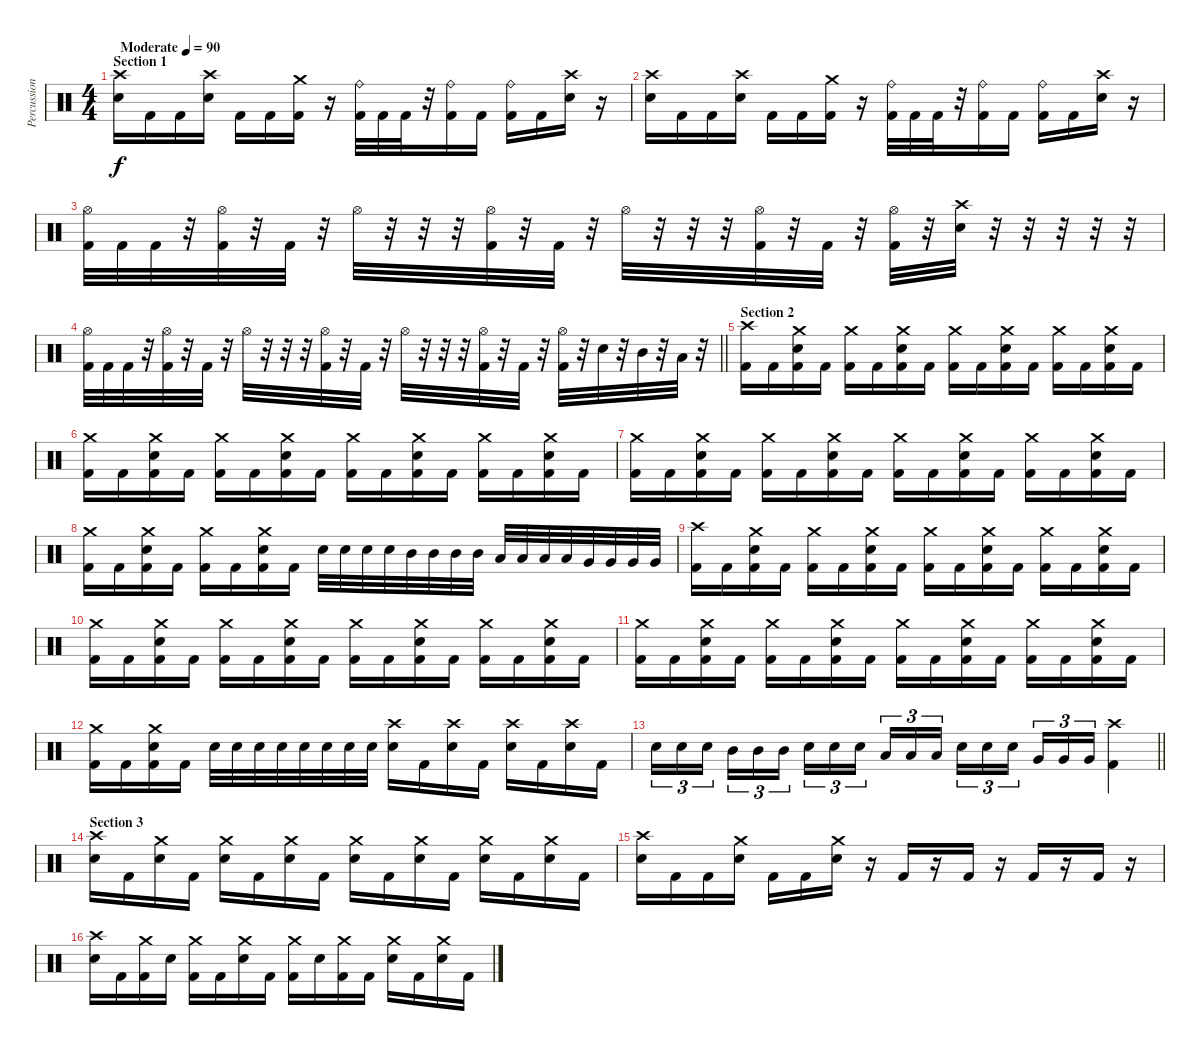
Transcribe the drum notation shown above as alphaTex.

\track ("Percussion" "Percussion") {instrument percussion}
\staff {score}
\articulation defaults
\ts (4 4)
\section ("" "Section 1")
\tempo (90 "Moderate")
\clef neutral
\ks c
("Crash high (hit)" "Electric Snare (hit)").16{dy f} "Kick (hit) 2".16 "Kick (hit) 2".16 ("Crash high (hit)" "Electric Snare (hit)").16 "Kick (hit) 2".16 "Kick (hit) 2".16 ("Crash medium (hit)" "Kick (hit) 2").16 r.16 ("Ride (bell)" "Kick (hit) 2").32 "Kick (hit) 2".32 "Kick (hit) 2".32 r.32 ("Ride (bell)" "Kick (hit) 2").16 "Kick (hit) 2".16 ("Ride (bell)" "Kick (hit) 2").16 "Kick (hit) 2".16 ("Crash high (hit)" "Electric Snare (hit)").16 r.16 |
("Crash high (hit)" "Electric Snare (hit)").16 "Kick (hit) 2".16 "Kick (hit) 2".16 ("Crash high (hit)" "Electric Snare (hit)").16 "Kick (hit) 2".16 "Kick (hit) 2".16 ("Crash medium (hit)" "Kick (hit) 2").16 r.16 ("Ride (bell)" "Kick (hit) 2").32 "Kick (hit) 2".32 "Kick (hit) 2".32 r.32 ("Ride (bell)" "Kick (hit) 2").16 "Kick (hit) 2".16 ("Ride (bell)" "Kick (hit) 2").16 "Kick (hit) 2".16 ("Crash high (hit)" "Electric Snare (hit)").16 r.16 |
("Hi-Hat (open)" "Kick (hit) 2").32 "Kick (hit) 2".32 "Kick (hit) 2".32 r.32 ("Hi-Hat (open)" "Kick (hit) 2").32 r.32 "Kick (hit) 2".32 r.32 "Hi-Hat (open)".32 r.32 r.32 r.32 ("Hi-Hat (open)" "Kick (hit) 2").32 r.32 "Kick (hit) 2".32 r.32 "Hi-Hat (open)".32 r.32 r.32 r.32 ("Hi-Hat (open)" "Kick (hit) 2").32 r.32 "Kick (hit) 2".32 r.32 ("Hi-Hat (open)" "Kick (hit) 2").32 r.32 ("Crash high (hit)" "Electric Snare (hit)").32 r.32 r.32 r.32 r.32 r.32 |
\barLineRight lightlight
("Hi-Hat (open)" "Kick (hit) 2").32 "Kick (hit) 2".32 "Kick (hit) 2".32 r.32 ("Hi-Hat (open)" "Kick (hit) 2").32 r.32 "Kick (hit) 2".32 r.32 "Hi-Hat (open)".32 r.32 r.32 r.32 ("Hi-Hat (open)" "Kick (hit) 2").32 r.32 "Kick (hit) 2".32 r.32 "Hi-Hat (open)".32 r.32 r.32 r.32 ("Hi-Hat (open)" "Kick (hit) 2").32 r.32 "Kick (hit) 2".32 r.32 ("Hi-Hat (open)" "Kick (hit) 2").32 r.32 "Electric Snare (hit)".32 r.32 "Mid Tom (hit)".32 r.32 "Low Tom (hit)".32 r.32 |
\section ("" "Section 2")
("Crash high (hit)" "Kick (hit) 2").16 "Kick (hit) 2".16 ("Crash medium (hit)" "Electric Snare (hit)" "Kick (hit) 2").16 "Kick (hit) 2".16 ("Crash medium (hit)" "Kick (hit) 2").16 "Kick (hit) 2".16 ("Crash medium (hit)" "Electric Snare (hit)" "Kick (hit) 2").16 "Kick (hit) 2".16 ("Crash medium (hit)" "Kick (hit) 2").16 "Kick (hit) 2".16 ("Crash medium (hit)" "Electric Snare (hit)" "Kick (hit) 2").16 "Kick (hit) 2".16 ("Crash medium (hit)" "Kick (hit) 2").16 "Kick (hit) 2".16 ("Crash medium (hit)" "Electric Snare (hit)" "Kick (hit) 2").16 "Kick (hit) 2".16 |
("Crash medium (hit)" "Kick (hit) 2").16 "Kick (hit) 2".16 ("Crash medium (hit)" "Electric Snare (hit)" "Kick (hit) 2").16 "Kick (hit) 2".16 ("Crash medium (hit)" "Kick (hit) 2").16 "Kick (hit) 2".16 ("Crash medium (hit)" "Electric Snare (hit)" "Kick (hit) 2").16 "Kick (hit) 2".16 ("Crash medium (hit)" "Kick (hit) 2").16 "Kick (hit) 2".16 ("Crash medium (hit)" "Electric Snare (hit)" "Kick (hit) 2").16 "Kick (hit) 2".16 ("Crash medium (hit)" "Kick (hit) 2").16 "Kick (hit) 2".16 ("Crash medium (hit)" "Electric Snare (hit)" "Kick (hit) 2").16 "Kick (hit) 2".16 |
("Crash medium (hit)" "Kick (hit) 2").16 "Kick (hit) 2".16 ("Crash medium (hit)" "Electric Snare (hit)" "Kick (hit) 2").16 "Kick (hit) 2".16 ("Crash medium (hit)" "Kick (hit) 2").16 "Kick (hit) 2".16 ("Crash medium (hit)" "Electric Snare (hit)" "Kick (hit) 2").16 "Kick (hit) 2".16 ("Crash medium (hit)" "Kick (hit) 2").16 "Kick (hit) 2".16 ("Crash medium (hit)" "Electric Snare (hit)" "Kick (hit) 2").16 "Kick (hit) 2".16 ("Crash medium (hit)" "Kick (hit) 2").16 "Kick (hit) 2".16 ("Crash medium (hit)" "Electric Snare (hit)" "Kick (hit) 2").16 "Kick (hit) 2".16 |
("Crash medium (hit)" "Kick (hit) 2").16 "Kick (hit) 2".16 ("Crash medium (hit)" "Electric Snare (hit)" "Kick (hit) 2").16 "Kick (hit) 2".16 ("Crash medium (hit)" "Kick (hit) 2").16 "Kick (hit) 2".16 ("Crash medium (hit)" "Electric Snare (hit)" "Kick (hit) 2").16 "Kick (hit) 2".16 "Electric Snare (hit)".32 "Electric Snare (hit)".32 "Electric Snare (hit)".32 "Electric Snare (hit)".32 "Mid Tom (hit)".32 "Mid Tom (hit)".32 "Mid Tom (hit)".32 "Mid Tom (hit)".32 "Low Tom (hit)".32 "Low Tom (hit)".32 "Low Tom (hit)".32 "Low Tom (hit)".32 "Very Low Tom (hit)".32 "Very Low Tom (hit)".32 "Very Low Tom (hit)".32 "Very Low Tom (hit)".32 |
("Crash high (hit)" "Kick (hit) 2").16 "Kick (hit) 2".16 ("Crash medium (hit)" "Electric Snare (hit)" "Kick (hit) 2").16 "Kick (hit) 2".16 ("Crash medium (hit)" "Kick (hit) 2").16 "Kick (hit) 2".16 ("Crash medium (hit)" "Electric Snare (hit)" "Kick (hit) 2").16 "Kick (hit) 2".16 ("Crash medium (hit)" "Kick (hit) 2").16 "Kick (hit) 2".16 ("Crash medium (hit)" "Electric Snare (hit)" "Kick (hit) 2").16 "Kick (hit) 2".16 ("Crash medium (hit)" "Kick (hit) 2").16 "Kick (hit) 2".16 ("Crash medium (hit)" "Electric Snare (hit)" "Kick (hit) 2").16 "Kick (hit) 2".16 |
("Crash medium (hit)" "Kick (hit) 2").16 "Kick (hit) 2".16 ("Crash medium (hit)" "Electric Snare (hit)" "Kick (hit) 2").16 "Kick (hit) 2".16 ("Crash medium (hit)" "Kick (hit) 2").16 "Kick (hit) 2".16 ("Crash medium (hit)" "Electric Snare (hit)" "Kick (hit) 2").16 "Kick (hit) 2".16 ("Crash medium (hit)" "Kick (hit) 2").16 "Kick (hit) 2".16 ("Crash medium (hit)" "Electric Snare (hit)" "Kick (hit) 2").16 "Kick (hit) 2".16 ("Crash medium (hit)" "Kick (hit) 2").16 "Kick (hit) 2".16 ("Crash medium (hit)" "Electric Snare (hit)" "Kick (hit) 2").16 "Kick (hit) 2".16 |
("Crash medium (hit)" "Kick (hit) 2").16 "Kick (hit) 2".16 ("Crash medium (hit)" "Electric Snare (hit)" "Kick (hit) 2").16 "Kick (hit) 2".16 ("Crash medium (hit)" "Kick (hit) 2").16 "Kick (hit) 2".16 ("Crash medium (hit)" "Electric Snare (hit)" "Kick (hit) 2").16 "Kick (hit) 2".16 ("Crash medium (hit)" "Kick (hit) 2").16 "Kick (hit) 2".16 ("Crash medium (hit)" "Electric Snare (hit)" "Kick (hit) 2").16 "Kick (hit) 2".16 ("Crash medium (hit)" "Kick (hit) 2").16 "Kick (hit) 2".16 ("Crash medium (hit)" "Electric Snare (hit)" "Kick (hit) 2").16 "Kick (hit) 2".16 |
("Crash medium (hit)" "Kick (hit) 2").16 "Kick (hit) 2".16 ("Crash medium (hit)" "Electric Snare (hit)" "Kick (hit) 2").16 "Kick (hit) 2".16 "Electric Snare (hit)".32 "Electric Snare (hit)".32 "Electric Snare (hit)".32 "Electric Snare (hit)".32 "Electric Snare (hit)".32 "Electric Snare (hit)".32 "Electric Snare (hit)".32 "Electric Snare (hit)".32 ("Crash high (hit)" "Electric Snare (hit)").16 "Kick (hit) 2".16 ("Crash high (hit)" "Electric Snare (hit)").16 "Kick (hit) 2".16 ("Crash high (hit)" "Electric Snare (hit)").16 "Kick (hit) 2".16 ("Crash high (hit)" "Electric Snare (hit)").16 "Kick (hit) 2".16 |
\barLineRight lightlight "Electric Snare (hit)".16{tu (3 2)} "Electric Snare (hit)".16{tu (3 2)} "Electric Snare (hit)".16{tu (3 2) beam splitsecondary} "Mid Tom (hit)".16{tu (3 2)} "Mid Tom (hit)".16{tu (3 2)} "Mid Tom (hit)".16{tu (3 2)} "Electric Snare (hit)".16{tu (3 2)} "Electric Snare (hit)".16{tu (3 2)} "Electric Snare (hit)".16{tu (3 2) beam splitsecondary} "Low Tom (hit)".16{tu (3 2)} "Low Tom (hit)".16{tu (3 2)} "Low Tom (hit)".16{tu (3 2)} "Electric Snare (hit)".16{tu (3 2)} "Electric Snare (hit)".16{tu (3 2)} "Electric Snare (hit)".16{tu (3 2) beam splitsecondary} "Very Low Tom (hit)".16{tu (3 2)} "Very Low Tom (hit)".16{tu (3 2)} "Very Low Tom (hit)".16{tu (3 2)}
("Crash high (hit)" "Kick (hit) 2").4 |
\section ("" "Section 3")
("Crash high (hit)" "Electric Snare (hit)").16 "Kick (hit) 2".16 ("Crash medium (hit)" "Electric Snare (hit)").16 "Kick (hit) 2".16 ("Crash medium (hit)" "Electric Snare (hit)").16 "Kick (hit) 2".16 ("Crash medium (hit)" "Electric Snare (hit)").16 "Kick (hit) 2".16 ("Crash medium (hit)" "Electric Snare (hit)").16 "Kick (hit) 2".16 ("Crash medium (hit)" "Electric Snare (hit)").16 "Kick (hit) 2".16 ("Crash medium (hit)" "Electric Snare (hit)").16 "Kick (hit) 2".16 ("Crash medium (hit)" "Electric Snare (hit)").16 "Kick (hit) 2".16 |
("Crash high (hit)" "Electric Snare (hit)").16 "Kick (hit) 2".16 "Kick (hit) 2".16 ("Crash medium (hit)" "Electric Snare (hit)").16 "Kick (hit) 2".16 "Kick (hit) 2".16 ("Crash medium (hit)" "Electric Snare (hit)").16 r.16 "Kick (hit) 2".16 r.16 "Kick (hit) 2".16 r.16 "Kick (hit) 2".16 r.16 "Kick (hit) 2".16 r.16 |
("Crash high (hit)" "Electric Snare (hit)").16 "Kick (hit) 2".16 ("Crash medium (hit)" "Kick (hit) 2").16 "Electric Snare (hit)".16 ("Crash medium (hit)" "Kick (hit) 2").16 "Kick (hit) 2".16 ("Crash medium (hit)" "Electric Snare (hit)").16 "Kick (hit) 2".16 ("Crash medium (hit)" "Kick (hit) 2").16 "Electric Snare (hit)".16 ("Crash medium (hit)" "Kick (hit) 2").16 "Kick (hit) 2".16 ("Crash medium (hit)" "Electric Snare (hit)").16 "Kick (hit) 2".16 ("Crash medium (hit)" "Electric Snare (hit)").16 "Kick (hit) 2".16
